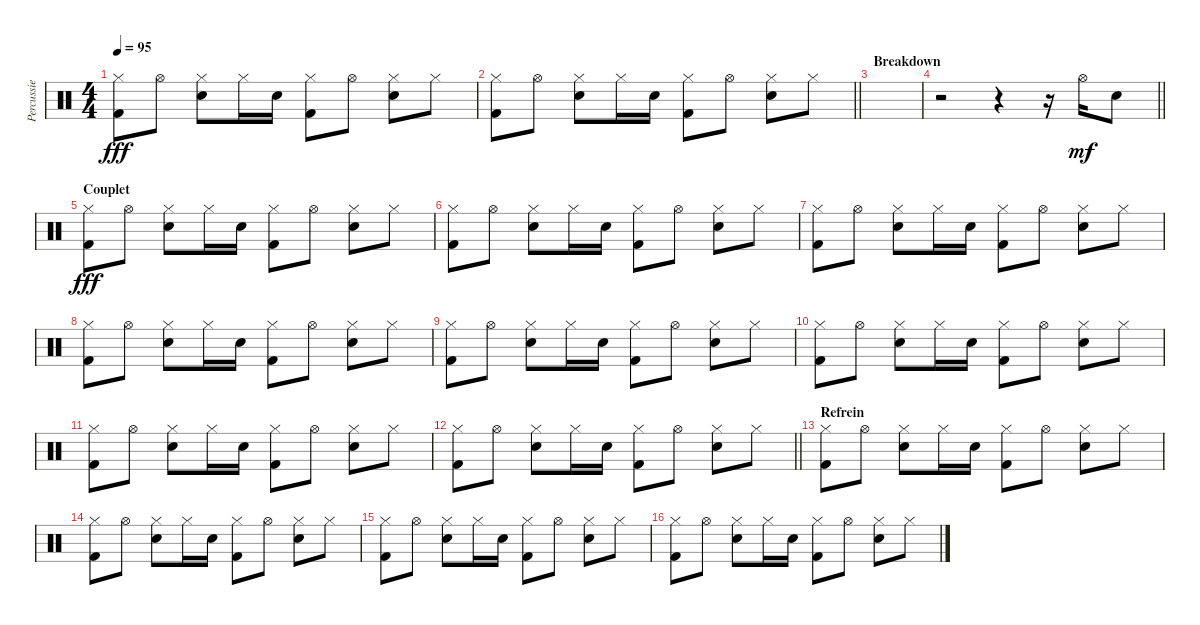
\track ("Percussie" "Percussie") {instrument percussion}
\staff {score}
\articulation defaults
\ts (4 4)
\tempo 95
\clef neutral
\ks c
("Hi-Hat (closed)" "Kick (hit) 2").8{dy fff} "Hi-Hat (open)".8 ("Hi-Hat (closed)" "Snare (hit) 2").8 "Hi-Hat (closed)".16 "Snare (hit) 2".16 ("Hi-Hat (closed)" "Kick (hit) 2").8 "Hi-Hat (open)".8 ("Hi-Hat (closed)" "Snare (hit) 2").8 "Hi-Hat (closed)".8 |
\barLineRight lightlight
("Hi-Hat (closed)" "Kick (hit) 2").8 "Hi-Hat (open)".8 ("Hi-Hat (closed)" "Snare (hit) 2").8 "Hi-Hat (closed)".16 "Snare (hit) 2".16 ("Hi-Hat (closed)" "Kick (hit) 2").8 "Hi-Hat (open)".8 ("Hi-Hat (closed)" "Snare (hit) 2").8 "Hi-Hat (closed)".8 |
\section ("" "Breakdown")
|
\barLineRight lightlight
r.2 r.4 r.16 "Hi-Hat (open)".16{dy mf} "Snare (hit) 2".8 |
\section ("" "Couplet")
("Hi-Hat (closed)" "Kick (hit) 2").8{dy fff} "Hi-Hat (open)".8 ("Hi-Hat (closed)" "Snare (hit) 2").8 "Hi-Hat (closed)".16 "Snare (hit) 2".16 ("Hi-Hat (closed)" "Kick (hit) 2").8 "Hi-Hat (open)".8 ("Hi-Hat (closed)" "Snare (hit) 2").8 "Hi-Hat (closed)".8 |
("Hi-Hat (closed)" "Kick (hit) 2").8 "Hi-Hat (open)".8 ("Hi-Hat (closed)" "Snare (hit) 2").8 "Hi-Hat (closed)".16 "Snare (hit) 2".16 ("Hi-Hat (closed)" "Kick (hit) 2").8 "Hi-Hat (open)".8 ("Hi-Hat (closed)" "Snare (hit) 2").8 "Hi-Hat (closed)".8 |
("Hi-Hat (closed)" "Kick (hit) 2").8 "Hi-Hat (open)".8 ("Hi-Hat (closed)" "Snare (hit) 2").8 "Hi-Hat (closed)".16 "Snare (hit) 2".16 ("Hi-Hat (closed)" "Kick (hit) 2").8 "Hi-Hat (open)".8 ("Hi-Hat (closed)" "Snare (hit) 2").8 "Hi-Hat (closed)".8 |
("Hi-Hat (closed)" "Kick (hit) 2").8 "Hi-Hat (open)".8 ("Hi-Hat (closed)" "Snare (hit) 2").8 "Hi-Hat (closed)".16 "Snare (hit) 2".16 ("Hi-Hat (closed)" "Kick (hit) 2").8 "Hi-Hat (open)".8 ("Hi-Hat (closed)" "Snare (hit) 2").8 "Hi-Hat (closed)".8 |
("Hi-Hat (closed)" "Kick (hit) 2").8 "Hi-Hat (open)".8 ("Hi-Hat (closed)" "Snare (hit) 2").8 "Hi-Hat (closed)".16 "Snare (hit) 2".16 ("Hi-Hat (closed)" "Kick (hit) 2").8 "Hi-Hat (open)".8 ("Hi-Hat (closed)" "Snare (hit) 2").8 "Hi-Hat (closed)".8 |
("Hi-Hat (closed)" "Kick (hit) 2").8 "Hi-Hat (open)".8 ("Hi-Hat (closed)" "Snare (hit) 2").8 "Hi-Hat (closed)".16 "Snare (hit) 2".16 ("Hi-Hat (closed)" "Kick (hit) 2").8 "Hi-Hat (open)".8 ("Hi-Hat (closed)" "Snare (hit) 2").8 "Hi-Hat (closed)".8 |
("Hi-Hat (closed)" "Kick (hit) 2").8 "Hi-Hat (open)".8 ("Hi-Hat (closed)" "Snare (hit) 2").8 "Hi-Hat (closed)".16 "Snare (hit) 2".16 ("Hi-Hat (closed)" "Kick (hit) 2").8 "Hi-Hat (open)".8 ("Hi-Hat (closed)" "Snare (hit) 2").8 "Hi-Hat (closed)".8 |
\barLineRight lightlight
("Hi-Hat (closed)" "Kick (hit) 2").8 "Hi-Hat (open)".8 ("Hi-Hat (closed)" "Snare (hit) 2").8 "Hi-Hat (closed)".16 "Snare (hit) 2".16 ("Hi-Hat (closed)" "Kick (hit) 2").8 "Hi-Hat (open)".8 ("Hi-Hat (closed)" "Snare (hit) 2").8 "Hi-Hat (closed)".8 |
\section ("" "Refrein")
("Hi-Hat (closed)" "Kick (hit) 2").8 "Hi-Hat (open)".8 ("Hi-Hat (closed)" "Snare (hit) 2").8 "Hi-Hat (closed)".16 "Snare (hit) 2".16 ("Hi-Hat (closed)" "Kick (hit) 2").8 "Hi-Hat (open)".8 ("Hi-Hat (closed)" "Snare (hit) 2").8 "Hi-Hat (closed)".8 |
("Hi-Hat (closed)" "Kick (hit) 2").8 "Hi-Hat (open)".8 ("Hi-Hat (closed)" "Snare (hit) 2").8 "Hi-Hat (closed)".16 "Snare (hit) 2".16 ("Hi-Hat (closed)" "Kick (hit) 2").8 "Hi-Hat (open)".8 ("Hi-Hat (closed)" "Snare (hit) 2").8 "Hi-Hat (closed)".8 |
("Hi-Hat (closed)" "Kick (hit) 2").8 "Hi-Hat (open)".8 ("Hi-Hat (closed)" "Snare (hit) 2").8 "Hi-Hat (closed)".16 "Snare (hit) 2".16 ("Hi-Hat (closed)" "Kick (hit) 2").8 "Hi-Hat (open)".8 ("Hi-Hat (closed)" "Snare (hit) 2").8 "Hi-Hat (closed)".8 |
("Hi-Hat (closed)" "Kick (hit) 2").8 "Hi-Hat (open)".8 ("Hi-Hat (closed)" "Snare (hit) 2").8 "Hi-Hat (closed)".16 "Snare (hit) 2".16 ("Hi-Hat (closed)" "Kick (hit) 2").8 "Hi-Hat (open)".8 ("Hi-Hat (closed)" "Snare (hit) 2").8 "Hi-Hat (closed)".8
